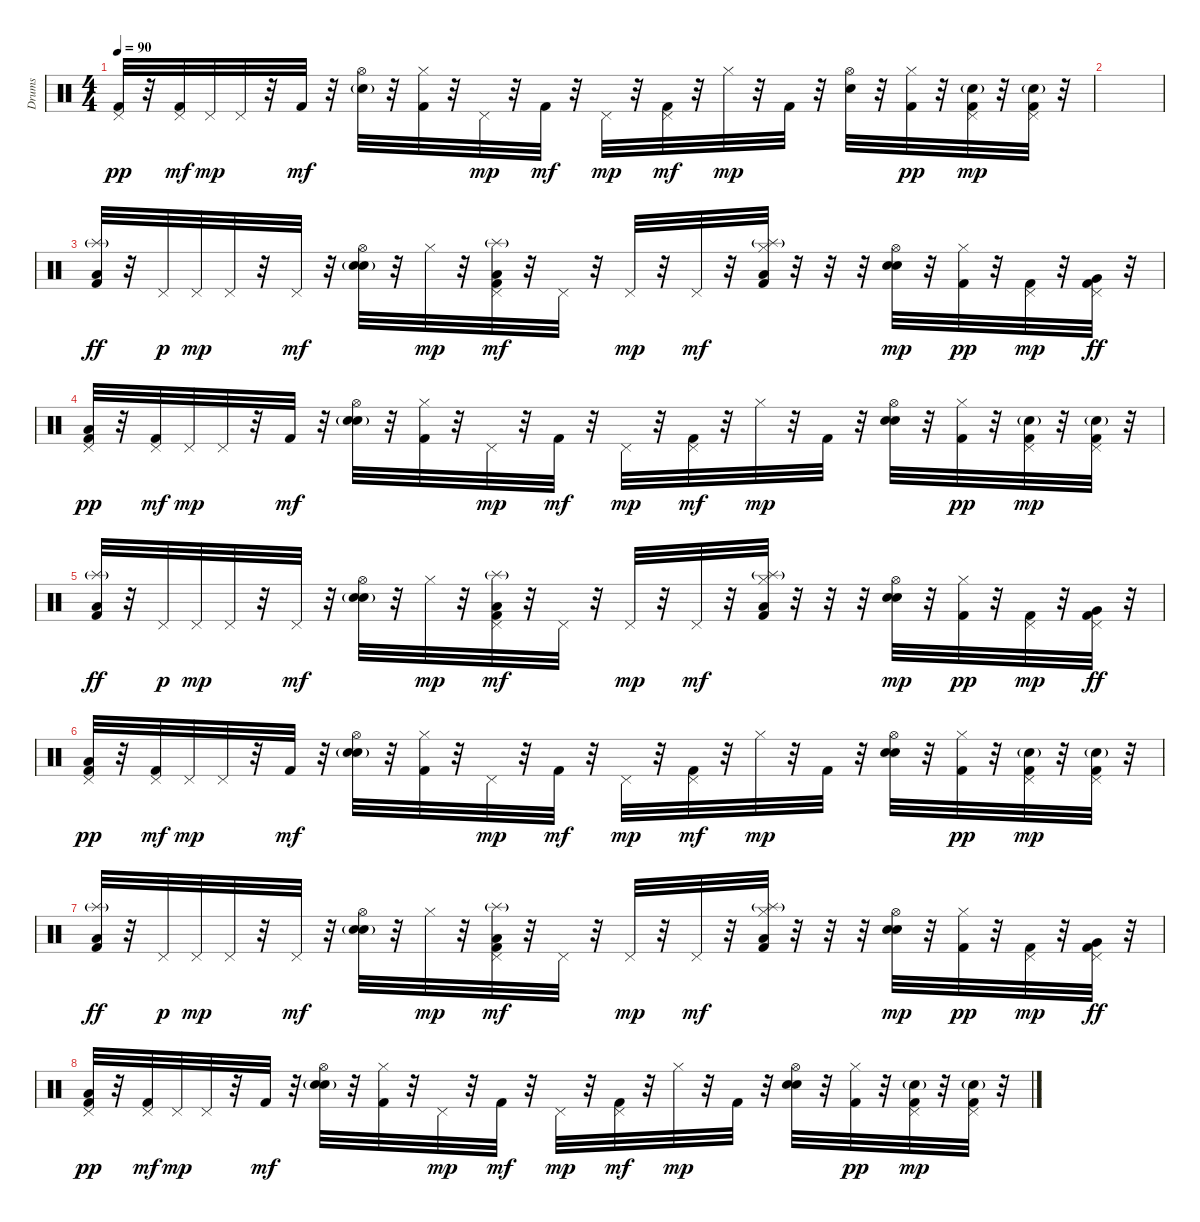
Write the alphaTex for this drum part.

\track ("Drums" "Drums") {instrument percussion}
\staff {score}
\articulation defaults
\ts (4 4)
\tempo 90
\clef neutral
\ks c
("Pedal Hi-Hat (hit)" "Kick (hit) 2").32{dy pp} r.32 ("Pedal Hi-Hat (hit)" "Kick (hit) 2").32{dy mf} "Pedal Hi-Hat (hit)".32{dy mp} "Pedal Hi-Hat (hit)".32 r.32 "Kick (hit) 2".32{dy mf} r.32 ("Hi-Hat (open)" "Snare (hit) 2"{g}).32 r.32 ("Hi-Hat (closed)" "Kick (hit) 2").32 r.32 "Pedal Hi-Hat (hit)".32{dy mp} r.32 "Kick (hit) 2".32{dy mf} r.32 "Pedal Hi-Hat (hit)".32{dy mp} r.32 ("Pedal Hi-Hat (hit)" "Kick (hit) 2").32{dy mf} r.32 "Hi-Hat (closed)".32{dy mp} r.32 "Kick (hit) 2".32 r.32 ("Hi-Hat (open)" "Snare (hit) 2").32 r.32 ("Hi-Hat (closed)" "Kick (hit) 2").32{dy pp} r.32 ("Pedal Hi-Hat (hit)" "Snare (hit) 2"{g} "Kick (hit) 2").32{dy mp} r.32 ("Pedal Hi-Hat (hit)" "Snare (hit) 2"{g} "Kick (hit) 2").32 r.32 |
|
("Splash (hit)"{g} "Low Floor Tom (hit)" "Kick (hit) 2").32{dy ff} r.32 "Pedal Hi-Hat (hit)".32{dy p} "Pedal Hi-Hat (hit)".32{dy mp} "Pedal Hi-Hat (hit)".32 r.32 "Pedal Hi-Hat (hit)".32{dy mf} r.32 ("Electric Snare (hit)" "Hi-Hat (open)" "Snare (hit) 2"{g}).32 r.32 "Hi-Hat (closed)".32{dy mp} r.32 ("Splash (hit)"{g} "Low Floor Tom (hit)" "Pedal Hi-Hat (hit)" "Kick (hit) 2").32{dy mf} r.32 "Pedal Hi-Hat (hit)".32 r.32 "Pedal Hi-Hat (hit)".32{dy mp} r.32 "Pedal Hi-Hat (hit)".32{dy mf} r.32 ("Splash (hit)"{g} "Low Floor Tom (hit)" "Hi-Hat (closed)" "Kick (hit) 2").32 r.32 r.32 r.32 ("Electric Snare (hit)" "Hi-Hat (open)" "Snare (hit) 2").32{dy mp} r.32 ("Hi-Hat (closed)" "Kick (hit) 2").32{dy pp} r.32 ("Pedal Hi-Hat (hit)" "Kick (hit) 2").32{dy mp} r.32 ("Very Low Tom (hit)" "Pedal Hi-Hat (hit)" "Kick (hit) 2").32{dy ff} r.32 |
("Low Floor Tom (hit)" "Pedal Hi-Hat (hit)" "Kick (hit) 2").32{dy pp} r.32 ("Pedal Hi-Hat (hit)" "Kick (hit) 2").32{dy mf} "Pedal Hi-Hat (hit)".32{dy mp} "Pedal Hi-Hat (hit)".32 r.32 "Kick (hit) 2".32{dy mf} r.32 ("Electric Snare (hit)" "Hi-Hat (open)" "Snare (hit) 2"{g}).32 r.32 ("Hi-Hat (closed)" "Kick (hit) 2").32 r.32 "Pedal Hi-Hat (hit)".32{dy mp} r.32 "Kick (hit) 2".32{dy mf} r.32 "Pedal Hi-Hat (hit)".32{dy mp} r.32 ("Pedal Hi-Hat (hit)" "Kick (hit) 2").32{dy mf} r.32 "Hi-Hat (closed)".32{dy mp} r.32 "Kick (hit) 2".32 r.32 ("Electric Snare (hit)" "Hi-Hat (open)" "Snare (hit) 2").32 r.32 ("Hi-Hat (closed)" "Kick (hit) 2").32{dy pp} r.32 ("Pedal Hi-Hat (hit)" "Snare (hit) 2"{g} "Kick (hit) 2").32{dy mp} r.32 ("Pedal Hi-Hat (hit)" "Snare (hit) 2"{g} "Kick (hit) 2").32 r.32 |
("Splash (hit)"{g} "Low Floor Tom (hit)" "Kick (hit) 2").32{dy ff} r.32 "Pedal Hi-Hat (hit)".32{dy p} "Pedal Hi-Hat (hit)".32{dy mp} "Pedal Hi-Hat (hit)".32 r.32 "Pedal Hi-Hat (hit)".32{dy mf} r.32 ("Electric Snare (hit)" "Hi-Hat (open)" "Snare (hit) 2"{g}).32 r.32 "Hi-Hat (closed)".32{dy mp} r.32 ("Splash (hit)"{g} "Low Floor Tom (hit)" "Pedal Hi-Hat (hit)" "Kick (hit) 2").32{dy mf} r.32 "Pedal Hi-Hat (hit)".32 r.32 "Pedal Hi-Hat (hit)".32{dy mp} r.32 "Pedal Hi-Hat (hit)".32{dy mf} r.32 ("Splash (hit)"{g} "Low Floor Tom (hit)" "Hi-Hat (closed)" "Kick (hit) 2").32 r.32 r.32 r.32 ("Electric Snare (hit)" "Hi-Hat (open)" "Snare (hit) 2").32{dy mp} r.32 ("Hi-Hat (closed)" "Kick (hit) 2").32{dy pp} r.32 ("Pedal Hi-Hat (hit)" "Kick (hit) 2").32{dy mp} r.32 ("Very Low Tom (hit)" "Pedal Hi-Hat (hit)" "Kick (hit) 2").32{dy ff} r.32 |
("Low Floor Tom (hit)" "Pedal Hi-Hat (hit)" "Kick (hit) 2").32{dy pp} r.32 ("Pedal Hi-Hat (hit)" "Kick (hit) 2").32{dy mf} "Pedal Hi-Hat (hit)".32{dy mp} "Pedal Hi-Hat (hit)".32 r.32 "Kick (hit) 2".32{dy mf} r.32 ("Electric Snare (hit)" "Hi-Hat (open)" "Snare (hit) 2"{g}).32 r.32 ("Hi-Hat (closed)" "Kick (hit) 2").32 r.32 "Pedal Hi-Hat (hit)".32{dy mp} r.32 "Kick (hit) 2".32{dy mf} r.32 "Pedal Hi-Hat (hit)".32{dy mp} r.32 ("Pedal Hi-Hat (hit)" "Kick (hit) 2").32{dy mf} r.32 "Hi-Hat (closed)".32{dy mp} r.32 "Kick (hit) 2".32 r.32 ("Electric Snare (hit)" "Hi-Hat (open)" "Snare (hit) 2").32 r.32 ("Hi-Hat (closed)" "Kick (hit) 2").32{dy pp} r.32 ("Pedal Hi-Hat (hit)" "Snare (hit) 2"{g} "Kick (hit) 2").32{dy mp} r.32 ("Pedal Hi-Hat (hit)" "Snare (hit) 2"{g} "Kick (hit) 2").32 r.32 |
("Splash (hit)"{g} "Low Floor Tom (hit)" "Kick (hit) 2").32{dy ff} r.32 "Pedal Hi-Hat (hit)".32{dy p} "Pedal Hi-Hat (hit)".32{dy mp} "Pedal Hi-Hat (hit)".32 r.32 "Pedal Hi-Hat (hit)".32{dy mf} r.32 ("Electric Snare (hit)" "Hi-Hat (open)" "Snare (hit) 2"{g}).32 r.32 "Hi-Hat (closed)".32{dy mp} r.32 ("Splash (hit)"{g} "Low Floor Tom (hit)" "Pedal Hi-Hat (hit)" "Kick (hit) 2").32{dy mf} r.32 "Pedal Hi-Hat (hit)".32 r.32 "Pedal Hi-Hat (hit)".32{dy mp} r.32 "Pedal Hi-Hat (hit)".32{dy mf} r.32 ("Splash (hit)"{g} "Low Floor Tom (hit)" "Hi-Hat (closed)" "Kick (hit) 2").32 r.32 r.32 r.32 ("Electric Snare (hit)" "Hi-Hat (open)" "Snare (hit) 2").32{dy mp} r.32 ("Hi-Hat (closed)" "Kick (hit) 2").32{dy pp} r.32 ("Pedal Hi-Hat (hit)" "Kick (hit) 2").32{dy mp} r.32 ("Very Low Tom (hit)" "Pedal Hi-Hat (hit)" "Kick (hit) 2").32{dy ff} r.32 |
("Low Floor Tom (hit)" "Pedal Hi-Hat (hit)" "Kick (hit) 2").32{dy pp} r.32 ("Pedal Hi-Hat (hit)" "Kick (hit) 2").32{dy mf} "Pedal Hi-Hat (hit)".32{dy mp} "Pedal Hi-Hat (hit)".32 r.32 "Kick (hit) 2".32{dy mf} r.32 ("Electric Snare (hit)" "Hi-Hat (open)" "Snare (hit) 2"{g}).32 r.32 ("Hi-Hat (closed)" "Kick (hit) 2").32 r.32 "Pedal Hi-Hat (hit)".32{dy mp} r.32 "Kick (hit) 2".32{dy mf} r.32 "Pedal Hi-Hat (hit)".32{dy mp} r.32 ("Pedal Hi-Hat (hit)" "Kick (hit) 2").32{dy mf} r.32 "Hi-Hat (closed)".32{dy mp} r.32 "Kick (hit) 2".32 r.32 ("Electric Snare (hit)" "Hi-Hat (open)" "Snare (hit) 2").32 r.32 ("Hi-Hat (closed)" "Kick (hit) 2").32{dy pp} r.32 ("Pedal Hi-Hat (hit)" "Snare (hit) 2"{g} "Kick (hit) 2").32{dy mp} r.32 ("Pedal Hi-Hat (hit)" "Snare (hit) 2"{g} "Kick (hit) 2").32 r.32
